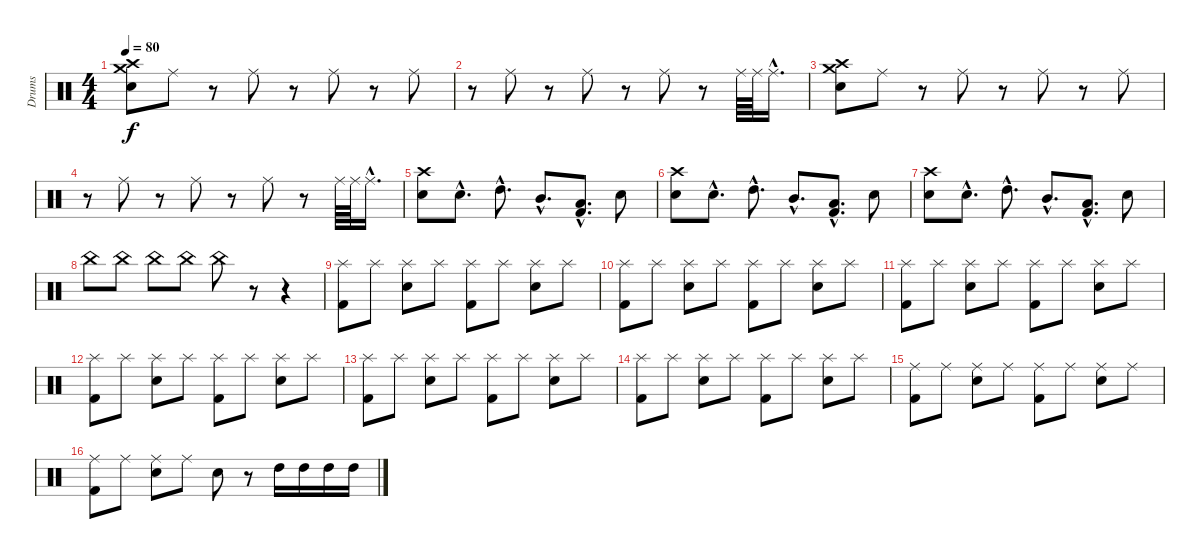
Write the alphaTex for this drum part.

\track ("Drums" "Drums") {instrument percussion}
\staff {score}
\articulation defaults
\ts (4 4)
\tempo 80
\clef neutral
\ks c
("Crash high (hit)" "Crash medium (hit)" "Snare (hit) 2").8{dy f} "Ride (middle)".8 r.8 "Ride (middle)".8 r.8 "Ride (middle)".8 r.8 "Ride (middle)".8 |
r.8 "Ride (middle)".8 r.8 "Ride (middle)".8 r.8 "Ride (middle)".8 r.8 "Ride (middle)".64 "Ride (middle)".64 "Ride (middle)"{hac}.16{d} |
("Crash high (hit)" "Crash medium (hit)" "Snare (hit) 2").8 "Ride (middle)".8 r.8 "Ride (middle)".8 r.8 "Ride (middle)".8 r.8 "Ride (middle)".8 |
r.8 "Ride (middle)".8 r.8 "Ride (middle)".8 r.8 "Ride (middle)".8 r.8 "Ride (middle)".64 "Ride (middle)".64 "Ride (middle)"{hac}.16{d} |
("Crash high (hit)" "Snare (hit) 2").8 "Electric Snare (hit)"{hac}.8{d} "High Tom (hit)"{hac}.8{d} "Mid Tom (hit)"{hac}.8{d} ("Kick (hit) 2"{hac} "Low Tom (hit)"{hac}).8{d} "Snare (hit) 2".8 |
("Crash high (hit)" "Snare (hit) 2").8 "Electric Snare (hit)"{hac}.8{d} "High Tom (hit)"{hac}.8{d} "Mid Tom (hit)"{hac}.8{d} ("Kick (hit) 2"{hac} "Low Tom (hit)"{hac}).8{d} "Snare (hit) 2".8 |
("Crash high (hit)" "Snare (hit) 2").8 "Electric Snare (hit)"{hac}.8{d} "High Tom (hit)"{hac}.8{d} "Mid Tom (hit)"{hac}.8{d} ("Kick (hit) 2"{hac} "Low Tom (hit)"{hac}).8{d} "Snare (hit) 2".8 |
"China (hit)".8 "China (hit)".8 "China (hit)".8 "China (hit)".8 "China (hit)".8 r.8 r.4 |
("Splash (hit)" "Kick (hit) 2").8 "Splash (hit)".8 ("Splash (hit)" "Electric Snare (hit)").8 "Splash (hit)".8 ("Splash (hit)" "Kick (hit) 2").8 "Splash (hit)".8 ("Splash (hit)" "Electric Snare (hit)").8 "Splash (hit)".8 |
("Splash (hit)" "Kick (hit) 2").8 "Splash (hit)".8 ("Splash (hit)" "Electric Snare (hit)").8 "Splash (hit)".8 ("Splash (hit)" "Kick (hit) 2").8 "Splash (hit)".8 ("Splash (hit)" "Electric Snare (hit)").8 "Splash (hit)".8 |
("Splash (hit)" "Kick (hit) 2").8 "Splash (hit)".8 ("Splash (hit)" "Electric Snare (hit)").8 "Splash (hit)".8 ("Splash (hit)" "Kick (hit) 2").8 "Splash (hit)".8 ("Splash (hit)" "Electric Snare (hit)").8 "Splash (hit)".8 |
("Splash (hit)" "Kick (hit) 2").8 "Splash (hit)".8 ("Splash (hit)" "Electric Snare (hit)").8 "Splash (hit)".8 ("Splash (hit)" "Kick (hit) 2").8 "Splash (hit)".8 ("Splash (hit)" "Electric Snare (hit)").8 "Splash (hit)".8 |
("Splash (hit)" "Kick (hit) 2").8 "Splash (hit)".8 ("Splash (hit)" "Electric Snare (hit)").8 "Splash (hit)".8 ("Splash (hit)" "Kick (hit) 2").8 "Splash (hit)".8 ("Splash (hit)" "Electric Snare (hit)").8 "Splash (hit)".8 |
("Splash (hit)" "Kick (hit) 2").8 "Splash (hit)".8 ("Splash (hit)" "Electric Snare (hit)").8 "Splash (hit)".8 ("Splash (hit)" "Kick (hit) 2").8 "Splash (hit)".8 ("Splash (hit)" "Electric Snare (hit)").8 "Splash (hit)".8 |
("Ride (middle)" "Kick (hit) 2").8 "Ride (middle)".8 ("Ride (middle)" "Electric Snare (hit)").8 "Ride (middle)".8 ("Ride (middle)" "Kick (hit) 2").8 "Ride (middle)".8 ("Ride (middle)" "Electric Snare (hit)").8 "Ride (middle)".8 |
("Ride (middle)" "Kick (hit) 2").8 "Ride (middle)".8 ("Ride (middle)" "Electric Snare (hit)").8 "Ride (middle)".8 "Electric Snare (hit)".8 r.8 "High Tom (hit)".16 "High Tom (hit)".16 "High Tom (hit)".16 "High Tom (hit)".16
